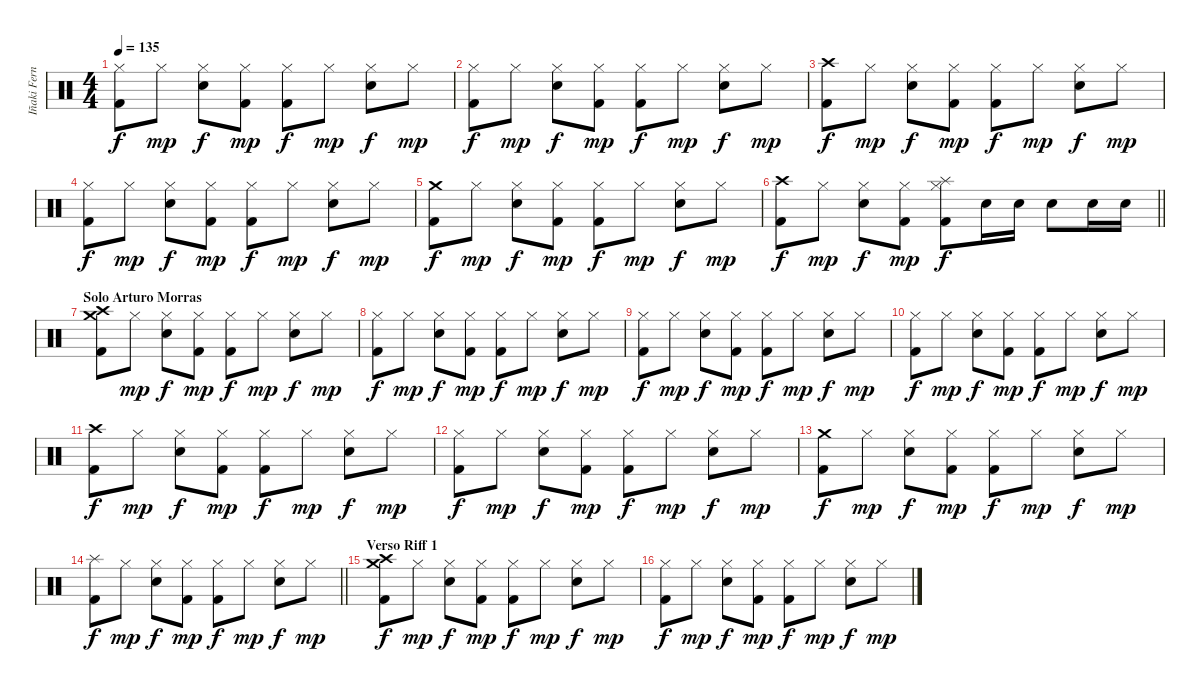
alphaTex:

\track ("Iñaki Fernández" "Iñaki Fern") {instrument percussion}
\staff {score}
\articulation defaults
\ts (4 4)
\tempo 135
\clef neutral
\ks c
("Hi-Hat (closed)" "Kick (hit) 2").8{dy f} "Hi-Hat (closed)".8{dy mp} ("Hi-Hat (closed)" "Snare (hit) 2").8{dy f} ("Hi-Hat (closed)" "Kick (hit) 2").8{dy mp} ("Hi-Hat (closed)" "Kick (hit) 2").8{dy f} "Hi-Hat (closed)".8{dy mp} ("Hi-Hat (closed)" "Snare (hit) 2").8{dy f} "Hi-Hat (closed)".8{dy mp} |
("Hi-Hat (closed)" "Kick (hit) 2").8{dy f} "Hi-Hat (closed)".8{dy mp} ("Hi-Hat (closed)" "Snare (hit) 2").8{dy f} ("Hi-Hat (closed)" "Kick (hit) 2").8{dy mp} ("Hi-Hat (closed)" "Kick (hit) 2").8{dy f} "Hi-Hat (closed)".8{dy mp} ("Hi-Hat (closed)" "Snare (hit) 2").8{dy f} "Hi-Hat (closed)".8{dy mp} |
("Crash high (hit)" "Kick (hit) 2").8{dy f} "Hi-Hat (closed)".8{dy mp} ("Hi-Hat (closed)" "Snare (hit) 2").8{dy f} ("Hi-Hat (closed)" "Kick (hit) 2").8{dy mp} ("Hi-Hat (closed)" "Kick (hit) 2").8{dy f} "Hi-Hat (closed)".8{dy mp} ("Hi-Hat (closed)" "Snare (hit) 2").8{dy f} "Hi-Hat (closed)".8{dy mp} |
("Hi-Hat (closed)" "Kick (hit) 2").8{dy f} "Hi-Hat (closed)".8{dy mp} ("Hi-Hat (closed)" "Snare (hit) 2").8{dy f} ("Hi-Hat (closed)" "Kick (hit) 2").8{dy mp} ("Hi-Hat (closed)" "Kick (hit) 2").8{dy f} "Hi-Hat (closed)".8{dy mp} ("Hi-Hat (closed)" "Snare (hit) 2").8{dy f} "Hi-Hat (closed)".8{dy mp} |
("Crash medium (hit)" "Kick (hit) 2").8{dy f} "Hi-Hat (closed)".8{dy mp} ("Hi-Hat (closed)" "Snare (hit) 2").8{dy f} ("Hi-Hat (closed)" "Kick (hit) 2").8{dy mp} ("Hi-Hat (closed)" "Kick (hit) 2").8{dy f} "Hi-Hat (closed)".8{dy mp} ("Hi-Hat (closed)" "Snare (hit) 2").8{dy f} "Hi-Hat (closed)".8{dy mp} |
\barLineRight lightlight
("Crash high (hit)" "Kick (hit) 2").8{dy f} "Hi-Hat (closed)".8{dy mp} ("Hi-Hat (closed)" "Snare (hit) 2").8{dy f} ("Hi-Hat (closed)" "Kick (hit) 2").8{dy mp} ("Hi-Hat (closed)" "Splash (hit)" "Kick (hit) 2").8{dy f} "Snare (hit) 2".16 "Snare (hit) 2".16 "Snare (hit) 2".8 "Snare (hit) 2".16 "Snare (hit) 2".16 |
\section ("" "Solo Arturo Morras")
("Crash medium (hit)" "Crash high (hit)" "Kick (hit) 2").8 "Hi-Hat (closed)".8{dy mp} ("Hi-Hat (closed)" "Snare (hit) 2").8{dy f} ("Hi-Hat (closed)" "Kick (hit) 2").8{dy mp} ("Hi-Hat (closed)" "Kick (hit) 2").8{dy f} "Hi-Hat (closed)".8{dy mp} ("Hi-Hat (closed)" "Snare (hit) 2").8{dy f} "Hi-Hat (closed)".8{dy mp} |
("Hi-Hat (closed)" "Kick (hit) 2").8{dy f} "Hi-Hat (closed)".8{dy mp} ("Hi-Hat (closed)" "Snare (hit) 2").8{dy f} ("Hi-Hat (closed)" "Kick (hit) 2").8{dy mp} ("Hi-Hat (closed)" "Kick (hit) 2").8{dy f} "Hi-Hat (closed)".8{dy mp} ("Hi-Hat (closed)" "Snare (hit) 2").8{dy f} "Hi-Hat (closed)".8{dy mp} |
("Hi-Hat (closed)" "Kick (hit) 2").8{dy f} "Hi-Hat (closed)".8{dy mp} ("Hi-Hat (closed)" "Snare (hit) 2").8{dy f} ("Hi-Hat (closed)" "Kick (hit) 2").8{dy mp} ("Hi-Hat (closed)" "Kick (hit) 2").8{dy f} "Hi-Hat (closed)".8{dy mp} ("Hi-Hat (closed)" "Snare (hit) 2").8{dy f} "Hi-Hat (closed)".8{dy mp} |
("Hi-Hat (closed)" "Kick (hit) 2").8{dy f} "Hi-Hat (closed)".8{dy mp} ("Hi-Hat (closed)" "Snare (hit) 2").8{dy f} ("Hi-Hat (closed)" "Kick (hit) 2").8{dy mp} ("Hi-Hat (closed)" "Kick (hit) 2").8{dy f} "Hi-Hat (closed)".8{dy mp} ("Hi-Hat (closed)" "Snare (hit) 2").8{dy f} "Hi-Hat (closed)".8{dy mp} |
("Crash high (hit)" "Kick (hit) 2").8{dy f} "Hi-Hat (closed)".8{dy mp} ("Hi-Hat (closed)" "Snare (hit) 2").8{dy f} ("Hi-Hat (closed)" "Kick (hit) 2").8{dy mp} ("Hi-Hat (closed)" "Kick (hit) 2").8{dy f} "Hi-Hat (closed)".8{dy mp} ("Hi-Hat (closed)" "Snare (hit) 2").8{dy f} "Hi-Hat (closed)".8{dy mp} |
("Hi-Hat (closed)" "Kick (hit) 2").8{dy f} "Hi-Hat (closed)".8{dy mp} ("Hi-Hat (closed)" "Snare (hit) 2").8{dy f} ("Hi-Hat (closed)" "Kick (hit) 2").8{dy mp} ("Hi-Hat (closed)" "Kick (hit) 2").8{dy f} "Hi-Hat (closed)".8{dy mp} ("Hi-Hat (closed)" "Snare (hit) 2").8{dy f} "Hi-Hat (closed)".8{dy mp} |
("Crash medium (hit)" "Kick (hit) 2").8{dy f} "Hi-Hat (closed)".8{dy mp} ("Hi-Hat (closed)" "Snare (hit) 2").8{dy f} ("Hi-Hat (closed)" "Kick (hit) 2").8{dy mp} ("Hi-Hat (closed)" "Kick (hit) 2").8{dy f} "Hi-Hat (closed)".8{dy mp} ("Hi-Hat (closed)" "Snare (hit) 2").8{dy f} "Hi-Hat (closed)".8{dy mp} |
\barLineRight lightlight
("Splash (hit)" "Kick (hit) 2").8{dy f} "Hi-Hat (closed)".8{dy mp} ("Hi-Hat (closed)" "Snare (hit) 2").8{dy f} ("Hi-Hat (closed)" "Kick (hit) 2").8{dy mp} ("Hi-Hat (closed)" "Kick (hit) 2").8{dy f} "Hi-Hat (closed)".8{dy mp} ("Hi-Hat (closed)" "Snare (hit) 2").8{dy f} "Hi-Hat (closed)".8{dy mp} |
\section ("" "Verso Riff 1")
("Crash medium (hit)" "Crash high (hit)" "Kick (hit) 2").8{dy f} "Hi-Hat (closed)".8{dy mp} ("Hi-Hat (closed)" "Snare (hit) 2").8{dy f} ("Hi-Hat (closed)" "Kick (hit) 2").8{dy mp} ("Hi-Hat (closed)" "Kick (hit) 2").8{dy f} "Hi-Hat (closed)".8{dy mp} ("Hi-Hat (closed)" "Snare (hit) 2").8{dy f} "Hi-Hat (closed)".8{dy mp} |
("Hi-Hat (closed)" "Kick (hit) 2").8{dy f} "Hi-Hat (closed)".8{dy mp} ("Hi-Hat (closed)" "Snare (hit) 2").8{dy f} ("Hi-Hat (closed)" "Kick (hit) 2").8{dy mp} ("Hi-Hat (closed)" "Kick (hit) 2").8{dy f} "Hi-Hat (closed)".8{dy mp} ("Hi-Hat (closed)" "Snare (hit) 2").8{dy f} "Hi-Hat (closed)".8{dy mp}
